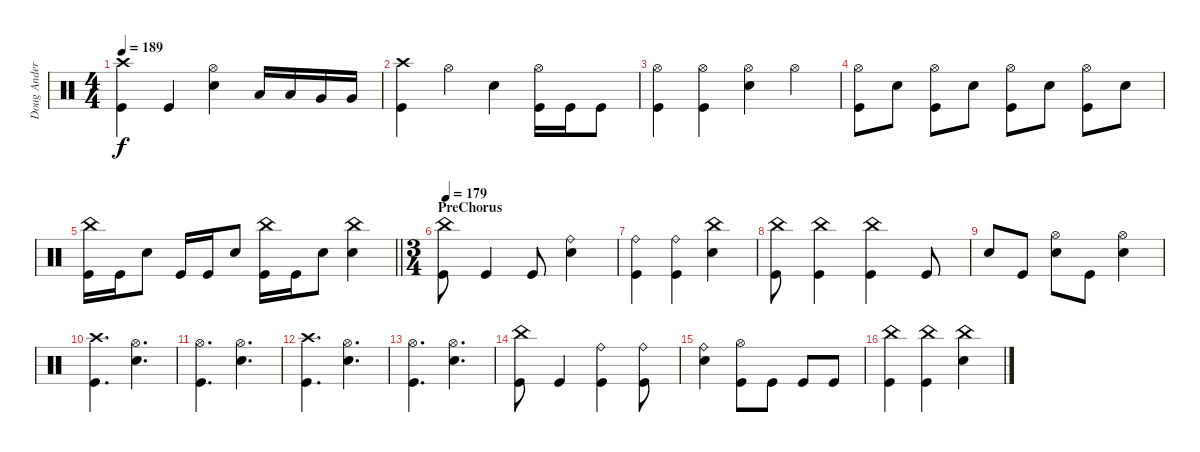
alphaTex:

\track ("Doug Anderson" "Doug Ander") {instrument percussion}
\staff {score}
\articulation defaults
\ts (4 4)
\tempo 189
\clef neutral
\ks c
("Crash high (hit)" "Kick (hit)").4{dy f} "Kick (hit)".4 ("Snare (hit) 2" "Hi-Hat (open)").4 "Low Tom (hit)".16 "Low Tom (hit)".16 "Very Low Tom (hit)".16 "Very Low Tom (hit)".16 |
("Kick (hit)" "Crash high (hit)").4 "Hi-Hat (open)".4 "Snare (hit) 2".4 ("Hi-Hat (open)" "Kick (hit)").16 "Kick (hit)".16 "Kick (hit)".8 |
("Kick (hit)" "Hi-Hat (open)").4 ("Kick (hit)" "Hi-Hat (open)").4 ("Hi-Hat (open)" "Snare (hit) 2").4 "Hi-Hat (open)".4 |
("Kick (hit)" "Hi-Hat (open)").8 "Snare (hit) 2".8 ("Kick (hit)" "Hi-Hat (open)").8 "Snare (hit) 2".8 ("Kick (hit)" "Hi-Hat (open)").8 "Snare (hit) 2".8 ("Kick (hit)" "Hi-Hat (open)").8 "Snare (hit) 2".8 |
\barLineRight lightlight
("Kick (hit)" "China (hit)").16 "Kick (hit)".16 "Snare (hit) 2".8 "Kick (hit)".16 "Kick (hit)".16 "Snare (hit) 2".8 ("Kick (hit)" "China (hit)").16 "Kick (hit)".16 "Snare (hit) 2".8 ("Snare (hit) 2" "China (hit)").4 |
\ts (3 4)
\section ("" "PreChorus")
\tempo 179
("Kick (hit)" "China (hit)").8 "Kick (hit)".4 "Kick (hit)".8 ("Snare (hit) 2" "Ride (bell)").4 |
("Kick (hit)" "Ride (bell)").4 ("Kick (hit)" "Ride (bell)").4 ("Snare (hit) 2" "China (hit)").4 |
("Kick (hit)" "China (hit)").8 ("Kick (hit)" "China (hit)").4 ("Kick (hit)" "China (hit)").4 "Kick (hit)".8 |
"Snare (hit) 2".8 "Kick (hit)".8 ("Snare (hit) 2" "Hi-Hat (open)").8 "Kick (hit)".8 ("Snare (hit) 2" "Hi-Hat (open)").4 |
("Kick (hit)" "Crash high (hit)").4{d} ("Snare (hit) 2" "Hi-Hat (open)").4{d} |
("Kick (hit)" "Hi-Hat (open)").4{d} ("Snare (hit) 2" "Hi-Hat (open)").4{d} |
("Kick (hit)" "Crash high (hit)").4{d} ("Snare (hit) 2" "Hi-Hat (open)").4{d} |
("Kick (hit)" "Hi-Hat (open)").4{d} ("Snare (hit) 2" "Hi-Hat (open)").4{d} |
("Kick (hit)" "China (hit)").8 "Kick (hit)".4 ("Kick (hit)" "Ride (bell)").4 ("Kick (hit)" "Ride (bell)").8 |
("Snare (hit) 2" "Ride (bell)").4 ("Kick (hit)" "Hi-Hat (open)").8 "Kick (hit)".8 "Kick (hit)".8 "Kick (hit)".8 |
("Kick (hit)" "China (hit)").4 ("Kick (hit)" "China (hit)").4 ("Snare (hit) 2" "China (hit)").4
